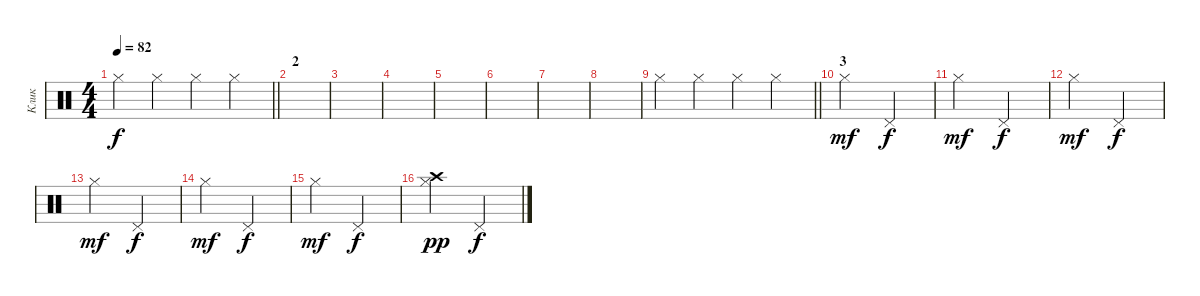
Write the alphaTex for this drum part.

\track ("Клик" "Клик") {mute instrument percussion}
\staff {score}
\articulation defaults
\ts (4 4)
\tempo 82
\clef neutral
\barLineRight lightlight
\ks c "Hi-Hat (closed)".4{dy f} "Hi-Hat (closed)".4 "Hi-Hat (closed)".4 "Hi-Hat (closed)".4
|
\section ("" "2")
|
|
|
|
|
|
|
\barLineRight lightlight "Hi-Hat (closed)".4 "Hi-Hat (closed)".4 "Hi-Hat (closed)".4 "Hi-Hat (closed)".4
|
\section ("" "3")
"Hi-Hat (closed)".2{dy mf} "Pedal Hi-Hat (hit)".2{dy f} |
"Hi-Hat (closed)".2{dy mf} "Pedal Hi-Hat (hit)".2{dy f} |
"Hi-Hat (closed)".2{dy mf} "Pedal Hi-Hat (hit)".2{dy f} |
"Hi-Hat (closed)".2{dy mf} "Pedal Hi-Hat (hit)".2{dy f} |
"Hi-Hat (closed)".2{dy mf} "Pedal Hi-Hat (hit)".2{dy f} |
"Hi-Hat (closed)".2{dy mf} "Pedal Hi-Hat (hit)".2{dy f} |
("Hi-Hat (closed)" "Crash high (hit)").2{dy pp} "Pedal Hi-Hat (hit)".2{dy f}
